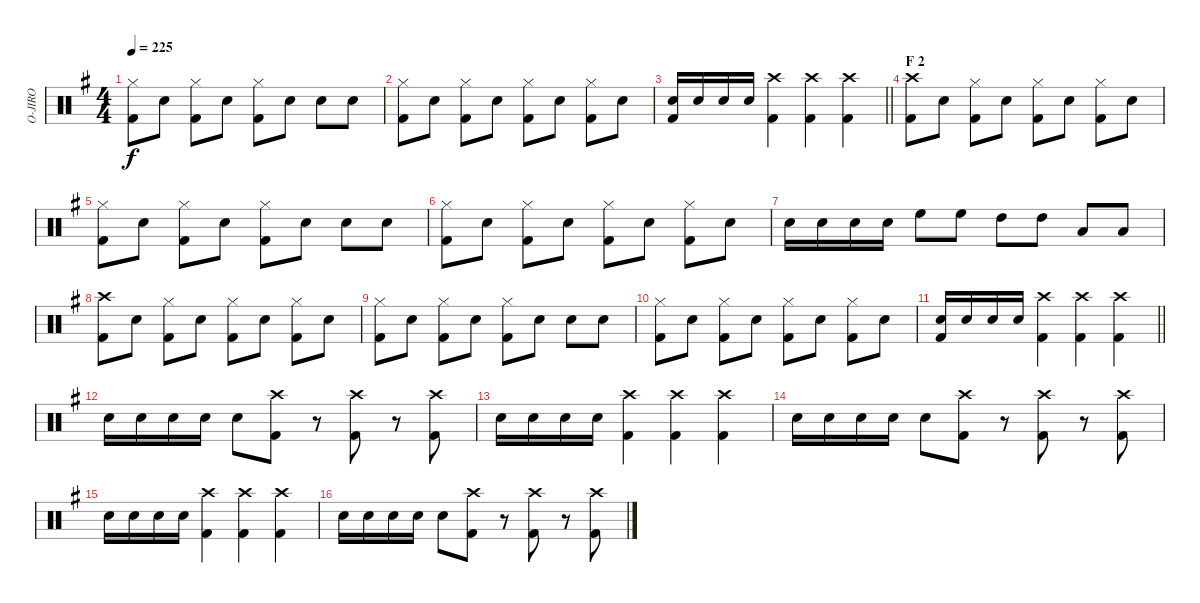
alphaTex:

\track ("O-JIRO" "O-JIRO") {instrument percussion}
\staff {score}
\articulation defaults
\ts (4 4)
\tempo 225
\clef neutral
\ks g
("Hi-Hat (closed)" "Kick (hit) 2").8{dy f} "Snare (hit) 2".8 ("Hi-Hat (closed)" "Kick (hit) 2").8 "Snare (hit) 2".8 ("Hi-Hat (closed)" "Kick (hit) 2").8 "Snare (hit) 2".8 "Snare (hit) 2".8 "Snare (hit) 2".8 |
("Hi-Hat (closed)" "Kick (hit) 2").8 "Snare (hit) 2".8 ("Hi-Hat (closed)" "Kick (hit) 2").8 "Snare (hit) 2".8 ("Hi-Hat (closed)" "Kick (hit) 2").8 "Snare (hit) 2".8 ("Hi-Hat (closed)" "Kick (hit) 2").8 "Snare (hit) 2".8 |
\barLineRight lightlight
("Snare (hit) 2" "Kick (hit) 2").16 "Snare (hit) 2".16 "Snare (hit) 2".16 "Snare (hit) 2".16 ("Crash high (hit)" "Kick (hit) 2").4 ("Crash high (hit)" "Kick (hit) 2").4 ("Crash high (hit)" "Kick (hit) 2").4 |
\section ("" "F 2")
("Crash high (hit)" "Kick (hit) 2").8 "Snare (hit) 2".8 ("Hi-Hat (closed)" "Kick (hit) 2").8 "Snare (hit) 2".8 ("Hi-Hat (closed)" "Kick (hit) 2").8 "Snare (hit) 2".8 ("Hi-Hat (closed)" "Kick (hit) 2").8 "Snare (hit) 2".8 |
("Hi-Hat (closed)" "Kick (hit) 2").8 "Snare (hit) 2".8 ("Hi-Hat (closed)" "Kick (hit) 2").8 "Snare (hit) 2".8 ("Hi-Hat (closed)" "Kick (hit) 2").8 "Snare (hit) 2".8 "Snare (hit) 2".8 "Snare (hit) 2".8 |
("Hi-Hat (closed)" "Kick (hit) 2").8 "Snare (hit) 2".8 ("Hi-Hat (closed)" "Kick (hit) 2").8 "Snare (hit) 2".8 ("Hi-Hat (closed)" "Kick (hit) 2").8 "Snare (hit) 2".8 ("Hi-Hat (closed)" "Kick (hit) 2").8 "Snare (hit) 2".8 |
"Snare (hit) 2".16 "Snare (hit) 2".16 "Snare (hit) 2".16 "Snare (hit) 2".16 "High Floor Tom (hit)".8 "High Floor Tom (hit)".8 "High Tom (hit)".8 "High Tom (hit)".8 "Low Tom (hit)".8 "Low Tom (hit)".8 |
("Crash high (hit)" "Kick (hit) 2").8 "Snare (hit) 2".8 ("Hi-Hat (closed)" "Kick (hit) 2").8 "Snare (hit) 2".8 ("Hi-Hat (closed)" "Kick (hit) 2").8 "Snare (hit) 2".8 ("Hi-Hat (closed)" "Kick (hit) 2").8 "Snare (hit) 2".8 |
("Hi-Hat (closed)" "Kick (hit) 2").8 "Snare (hit) 2".8 ("Hi-Hat (closed)" "Kick (hit) 2").8 "Snare (hit) 2".8 ("Hi-Hat (closed)" "Kick (hit) 2").8 "Snare (hit) 2".8 "Snare (hit) 2".8 "Snare (hit) 2".8 |
("Hi-Hat (closed)" "Kick (hit) 2").8 "Snare (hit) 2".8 ("Hi-Hat (closed)" "Kick (hit) 2").8 "Snare (hit) 2".8 ("Hi-Hat (closed)" "Kick (hit) 2").8 "Snare (hit) 2".8 ("Hi-Hat (closed)" "Kick (hit) 2").8 "Snare (hit) 2".8 |
\barLineRight lightlight
("Snare (hit) 2" "Kick (hit) 2").16 "Snare (hit) 2".16 "Snare (hit) 2".16 "Snare (hit) 2".16 ("Crash high (hit)" "Kick (hit) 2").4 ("Crash high (hit)" "Kick (hit) 2").4 ("Crash high (hit)" "Kick (hit) 2").4 |
"Snare (hit) 2".16 "Snare (hit) 2".16 "Snare (hit) 2".16 "Snare (hit) 2".16 "Snare (hit) 2".8 ("Crash high (hit)" "Kick (hit) 2").8 r.8 ("Crash high (hit)" "Kick (hit) 2").8 r.8 ("Crash high (hit)" "Kick (hit) 2").8 |
"Snare (hit) 2".16 "Snare (hit) 2".16 "Snare (hit) 2".16 "Snare (hit) 2".16 ("Crash high (hit)" "Kick (hit) 2").4 ("Crash high (hit)" "Kick (hit) 2").4 ("Crash high (hit)" "Kick (hit) 2").4 |
"Snare (hit) 2".16 "Snare (hit) 2".16 "Snare (hit) 2".16 "Snare (hit) 2".16 "Snare (hit) 2".8 ("Crash high (hit)" "Kick (hit) 2").8 r.8 ("Crash high (hit)" "Kick (hit) 2").8 r.8 ("Crash high (hit)" "Kick (hit) 2").8 |
"Snare (hit) 2".16 "Snare (hit) 2".16 "Snare (hit) 2".16 "Snare (hit) 2".16 ("Crash high (hit)" "Kick (hit) 2").4 ("Crash high (hit)" "Kick (hit) 2").4 ("Crash high (hit)" "Kick (hit) 2").4 |
"Snare (hit) 2".16 "Snare (hit) 2".16 "Snare (hit) 2".16 "Snare (hit) 2".16 "Snare (hit) 2".8 ("Crash high (hit)" "Kick (hit) 2").8 r.8 ("Crash high (hit)" "Kick (hit) 2").8 r.8 ("Crash high (hit)" "Kick (hit) 2").8
